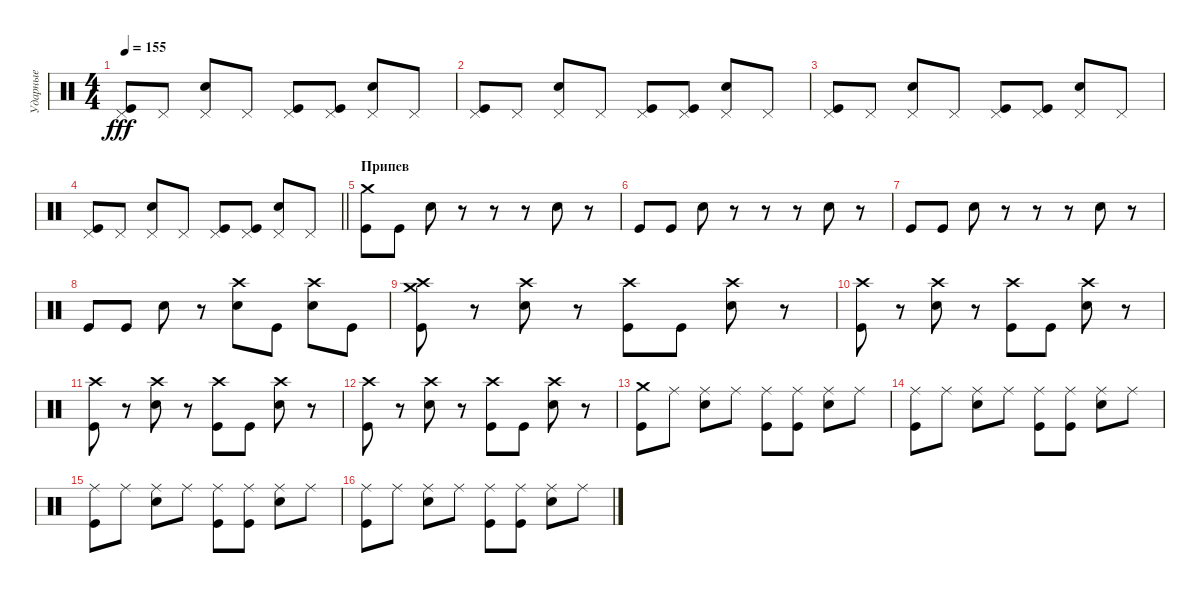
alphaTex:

\track ("Ударные" "Ударные") {instrument percussion}
\staff {score}
\articulation defaults
\ts (4 4)
\tempo 155
\clef neutral
\ks c
("Pedal Hi-Hat (hit)" "Kick (hit)").8{dy fff} "Pedal Hi-Hat (hit)".8 ("Pedal Hi-Hat (hit)" "Electric Snare (hit)").8 "Pedal Hi-Hat (hit)".8 ("Pedal Hi-Hat (hit)" "Kick (hit)").8 ("Pedal Hi-Hat (hit)" "Kick (hit)").8 ("Pedal Hi-Hat (hit)" "Electric Snare (hit)").8 "Pedal Hi-Hat (hit)".8 |
("Pedal Hi-Hat (hit)" "Kick (hit)").8 "Pedal Hi-Hat (hit)".8 ("Pedal Hi-Hat (hit)" "Electric Snare (hit)").8 "Pedal Hi-Hat (hit)".8 ("Pedal Hi-Hat (hit)" "Kick (hit)").8 ("Pedal Hi-Hat (hit)" "Kick (hit)").8 ("Pedal Hi-Hat (hit)" "Electric Snare (hit)").8 "Pedal Hi-Hat (hit)".8 |
("Pedal Hi-Hat (hit)" "Kick (hit)").8 "Pedal Hi-Hat (hit)".8 ("Pedal Hi-Hat (hit)" "Electric Snare (hit)").8 "Pedal Hi-Hat (hit)".8 ("Pedal Hi-Hat (hit)" "Kick (hit)").8 ("Pedal Hi-Hat (hit)" "Kick (hit)").8 ("Pedal Hi-Hat (hit)" "Electric Snare (hit)").8 "Pedal Hi-Hat (hit)".8 |
\barLineRight lightlight
("Pedal Hi-Hat (hit)" "Kick (hit)").8 "Pedal Hi-Hat (hit)".8 ("Pedal Hi-Hat (hit)" "Electric Snare (hit)").8 "Pedal Hi-Hat (hit)".8 ("Pedal Hi-Hat (hit)" "Kick (hit)").8 ("Pedal Hi-Hat (hit)" "Kick (hit)").8 ("Pedal Hi-Hat (hit)" "Electric Snare (hit)").8 "Pedal Hi-Hat (hit)".8 |
\section ("" "Припев")
("Kick (hit)" "Crash medium (hit)").8 "Kick (hit)".8 "Electric Snare (hit)".8 r.8 r.8 r.8 "Electric Snare (hit)".8 r.8 |
"Kick (hit)".8 "Kick (hit)".8 "Electric Snare (hit)".8 r.8 r.8 r.8 "Electric Snare (hit)".8 r.8 |
"Kick (hit)".8 "Kick (hit)".8 "Electric Snare (hit)".8 r.8 r.8 r.8 "Electric Snare (hit)".8 r.8 |
"Kick (hit)".8 "Kick (hit)".8 "Electric Snare (hit)".8 r.8 ("Electric Snare (hit)" "Crash high (hit)").8 "Kick (hit)".8 ("Electric Snare (hit)" "Crash high (hit)").8 "Kick (hit)".8 |
("Crash high (hit)" "Kick (hit)" "Crash medium (hit)").8 r.8 ("Crash high (hit)" "Electric Snare (hit)").8 r.8 ("Crash high (hit)" "Kick (hit)").8 "Kick (hit)".8 ("Crash high (hit)" "Electric Snare (hit)").8 r.8 |
("Crash high (hit)" "Kick (hit)").8 r.8 ("Crash high (hit)" "Electric Snare (hit)").8 r.8 ("Crash high (hit)" "Kick (hit)").8 "Kick (hit)".8 ("Crash high (hit)" "Electric Snare (hit)").8 r.8 |
("Crash high (hit)" "Kick (hit)").8 r.8 ("Crash high (hit)" "Electric Snare (hit)").8 r.8 ("Crash high (hit)" "Kick (hit)").8 "Kick (hit)".8 ("Crash high (hit)" "Electric Snare (hit)").8 r.8 |
("Crash high (hit)" "Kick (hit)").8 r.8 ("Crash high (hit)" "Electric Snare (hit)").8 r.8 ("Crash high (hit)" "Kick (hit)").8 "Kick (hit)".8 ("Crash high (hit)" "Electric Snare (hit)").8 r.8 |
("Crash medium (hit)" "Kick (hit)").8 "Ride (middle)".8 ("Ride (middle)" "Electric Snare (hit)").8 "Ride (middle)".8 ("Ride (middle)" "Kick (hit)").8 ("Ride (middle)" "Kick (hit)").8 ("Ride (middle)" "Electric Snare (hit)").8 "Ride (middle)".8 |
("Ride (middle)" "Kick (hit)").8 "Ride (middle)".8 ("Ride (middle)" "Electric Snare (hit)").8 "Ride (middle)".8 ("Ride (middle)" "Kick (hit)").8 ("Ride (middle)" "Kick (hit)").8 ("Ride (middle)" "Electric Snare (hit)").8 "Ride (middle)".8 |
("Ride (middle)" "Kick (hit)").8 "Ride (middle)".8 ("Ride (middle)" "Electric Snare (hit)").8 "Ride (middle)".8 ("Ride (middle)" "Kick (hit)").8 ("Ride (middle)" "Kick (hit)").8 ("Ride (middle)" "Electric Snare (hit)").8 "Ride (middle)".8 |
("Ride (middle)" "Kick (hit)").8 "Ride (middle)".8 ("Ride (middle)" "Electric Snare (hit)").8 "Ride (middle)".8 ("Ride (middle)" "Kick (hit)").8 ("Ride (middle)" "Kick (hit)").8 ("Ride (middle)" "Electric Snare (hit)").8 "Ride (middle)".8
